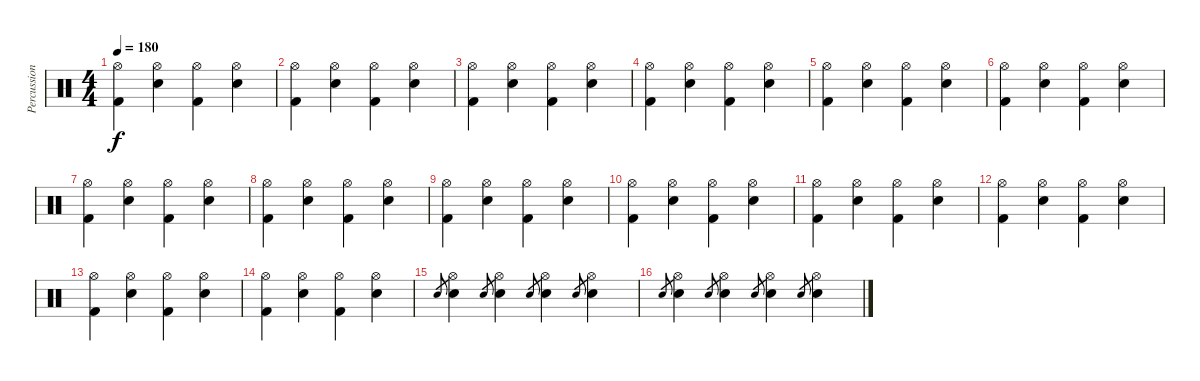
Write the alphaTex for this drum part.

\track ("Percussion" "Percussion") {instrument percussion}
\staff {score}
\articulation defaults
\ts (4 4)
\tempo 180
\clef neutral
\ks c
("Hi-Hat (open)" "Kick (hit) 2").4{dy f} ("Hi-Hat (open)" "Snare (hit) 2").4 ("Hi-Hat (open)" "Kick (hit) 2").4 ("Hi-Hat (open)" "Snare (hit) 2").4 |
("Hi-Hat (open)" "Kick (hit) 2").4 ("Hi-Hat (open)" "Snare (hit) 2").4 ("Hi-Hat (open)" "Kick (hit) 2").4 ("Hi-Hat (open)" "Snare (hit) 2").4 |
("Hi-Hat (open)" "Kick (hit) 2").4 ("Hi-Hat (open)" "Snare (hit) 2").4 ("Hi-Hat (open)" "Kick (hit) 2").4 ("Hi-Hat (open)" "Snare (hit) 2").4 |
("Hi-Hat (open)" "Kick (hit) 2").4 ("Hi-Hat (open)" "Snare (hit) 2").4 ("Hi-Hat (open)" "Kick (hit) 2").4 ("Hi-Hat (open)" "Snare (hit) 2").4 |
("Hi-Hat (open)" "Kick (hit) 2").4 ("Hi-Hat (open)" "Snare (hit) 2").4 ("Hi-Hat (open)" "Kick (hit) 2").4 ("Hi-Hat (open)" "Snare (hit) 2").4 |
("Hi-Hat (open)" "Kick (hit) 2").4 ("Hi-Hat (open)" "Snare (hit) 2").4 ("Hi-Hat (open)" "Kick (hit) 2").4 ("Hi-Hat (open)" "Snare (hit) 2").4 |
("Hi-Hat (open)" "Kick (hit) 2").4 ("Hi-Hat (open)" "Snare (hit) 2").4 ("Hi-Hat (open)" "Kick (hit) 2").4 ("Hi-Hat (open)" "Snare (hit) 2").4 |
("Hi-Hat (open)" "Kick (hit) 2").4 ("Hi-Hat (open)" "Snare (hit) 2").4 ("Hi-Hat (open)" "Kick (hit) 2").4 ("Hi-Hat (open)" "Snare (hit) 2").4 |
("Hi-Hat (open)" "Kick (hit) 2").4 ("Hi-Hat (open)" "Snare (hit) 2").4 ("Hi-Hat (open)" "Kick (hit) 2").4 ("Hi-Hat (open)" "Snare (hit) 2").4 |
("Hi-Hat (open)" "Kick (hit) 2").4 ("Hi-Hat (open)" "Snare (hit) 2").4 ("Hi-Hat (open)" "Kick (hit) 2").4 ("Hi-Hat (open)" "Snare (hit) 2").4 |
("Hi-Hat (open)" "Kick (hit) 2").4 ("Hi-Hat (open)" "Snare (hit) 2").4 ("Hi-Hat (open)" "Kick (hit) 2").4 ("Hi-Hat (open)" "Snare (hit) 2").4 |
("Hi-Hat (open)" "Kick (hit) 2").4 ("Hi-Hat (open)" "Snare (hit) 2").4 ("Hi-Hat (open)" "Kick (hit) 2").4 ("Hi-Hat (open)" "Snare (hit) 2").4 |
("Hi-Hat (open)" "Kick (hit) 2").4 ("Hi-Hat (open)" "Snare (hit) 2").4 ("Hi-Hat (open)" "Kick (hit) 2").4 ("Hi-Hat (open)" "Snare (hit) 2").4 |
("Hi-Hat (open)" "Kick (hit) 2").4 ("Hi-Hat (open)" "Snare (hit) 2").4 ("Hi-Hat (open)" "Kick (hit) 2").4 ("Hi-Hat (open)" "Snare (hit) 2").4 |
"Snare (hit) 2".8{gr} ("Hi-Hat (open)" "Snare (hit) 2").4 "Snare (hit) 2".8{gr} ("Hi-Hat (open)" "Snare (hit) 2").4 "Snare (hit) 2".8{gr} ("Hi-Hat (open)" "Snare (hit) 2").4 "Snare (hit) 2".8{gr} ("Hi-Hat (open)" "Snare (hit) 2").4 |
"Snare (hit) 2".8{gr} ("Hi-Hat (open)" "Snare (hit) 2").4 "Snare (hit) 2".8{gr} ("Hi-Hat (open)" "Snare (hit) 2").4 "Snare (hit) 2".8{gr} ("Hi-Hat (open)" "Snare (hit) 2").4 "Snare (hit) 2".8{gr} ("Hi-Hat (open)" "Snare (hit) 2").4
